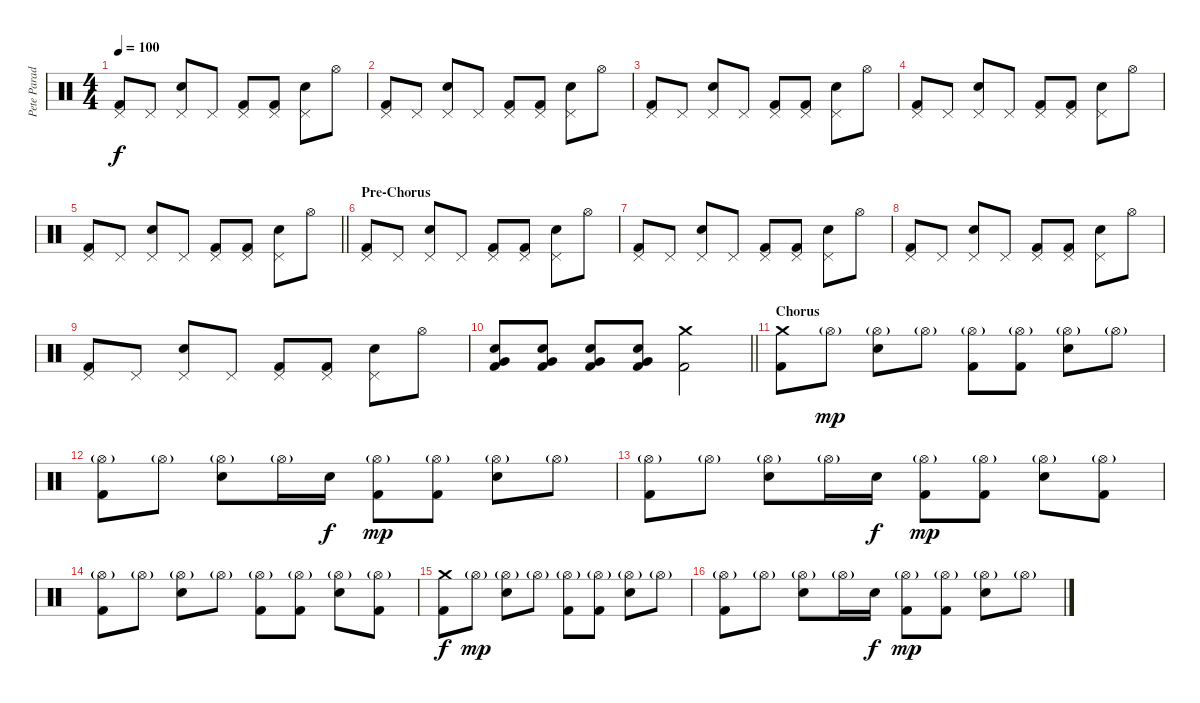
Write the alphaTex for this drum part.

\track ("Pete Parada - Drums" "Pete Parad") {instrument percussion}
\staff {score}
\articulation defaults
\ts (4 4)
\tempo 100
\clef neutral
\ks c
("Pedal Hi-Hat (hit)" "Kick (hit) 2").8{dy f} "Pedal Hi-Hat (hit)".8 ("Pedal Hi-Hat (hit)" "Electric Snare (hit)").8 "Pedal Hi-Hat (hit)".8 ("Pedal Hi-Hat (hit)" "Kick (hit) 2").8 ("Pedal Hi-Hat (hit)" "Kick (hit) 2").8 ("Pedal Hi-Hat (hit)" "Electric Snare (hit)").8 "Hi-Hat (open)".8 |
("Pedal Hi-Hat (hit)" "Kick (hit) 2").8 "Pedal Hi-Hat (hit)".8 ("Pedal Hi-Hat (hit)" "Electric Snare (hit)").8 "Pedal Hi-Hat (hit)".8 ("Pedal Hi-Hat (hit)" "Kick (hit) 2").8 ("Pedal Hi-Hat (hit)" "Kick (hit) 2").8 ("Pedal Hi-Hat (hit)" "Electric Snare (hit)").8 "Hi-Hat (open)".8 |
("Pedal Hi-Hat (hit)" "Kick (hit) 2").8 "Pedal Hi-Hat (hit)".8 ("Pedal Hi-Hat (hit)" "Electric Snare (hit)").8 "Pedal Hi-Hat (hit)".8 ("Pedal Hi-Hat (hit)" "Kick (hit) 2").8 ("Pedal Hi-Hat (hit)" "Kick (hit) 2").8 ("Pedal Hi-Hat (hit)" "Electric Snare (hit)").8 "Hi-Hat (open)".8 |
("Pedal Hi-Hat (hit)" "Kick (hit) 2").8 "Pedal Hi-Hat (hit)".8 ("Pedal Hi-Hat (hit)" "Electric Snare (hit)").8 "Pedal Hi-Hat (hit)".8 ("Pedal Hi-Hat (hit)" "Kick (hit) 2").8 ("Pedal Hi-Hat (hit)" "Kick (hit) 2").8 ("Pedal Hi-Hat (hit)" "Electric Snare (hit)").8 "Hi-Hat (open)".8 |
\barLineRight lightlight
("Pedal Hi-Hat (hit)" "Kick (hit) 2").8 "Pedal Hi-Hat (hit)".8 ("Pedal Hi-Hat (hit)" "Electric Snare (hit)").8 "Pedal Hi-Hat (hit)".8 ("Pedal Hi-Hat (hit)" "Kick (hit) 2").8 ("Pedal Hi-Hat (hit)" "Kick (hit) 2").8 ("Pedal Hi-Hat (hit)" "Electric Snare (hit)").8 "Hi-Hat (open)".8 |
\section ("" "Pre-Chorus")
("Pedal Hi-Hat (hit)" "Kick (hit) 2").8 "Pedal Hi-Hat (hit)".8 ("Pedal Hi-Hat (hit)" "Electric Snare (hit)").8 "Pedal Hi-Hat (hit)".8 ("Pedal Hi-Hat (hit)" "Kick (hit) 2").8 ("Pedal Hi-Hat (hit)" "Kick (hit) 2").8 ("Pedal Hi-Hat (hit)" "Electric Snare (hit)").8 "Hi-Hat (open)".8 |
("Pedal Hi-Hat (hit)" "Kick (hit) 2").8 "Pedal Hi-Hat (hit)".8 ("Pedal Hi-Hat (hit)" "Electric Snare (hit)").8 "Pedal Hi-Hat (hit)".8 ("Pedal Hi-Hat (hit)" "Kick (hit) 2").8 ("Pedal Hi-Hat (hit)" "Kick (hit) 2").8 ("Pedal Hi-Hat (hit)" "Electric Snare (hit)").8 "Hi-Hat (open)".8 |
("Pedal Hi-Hat (hit)" "Kick (hit) 2").8 "Pedal Hi-Hat (hit)".8 ("Pedal Hi-Hat (hit)" "Electric Snare (hit)").8 "Pedal Hi-Hat (hit)".8 ("Pedal Hi-Hat (hit)" "Kick (hit) 2").8 ("Pedal Hi-Hat (hit)" "Kick (hit) 2").8 ("Pedal Hi-Hat (hit)" "Electric Snare (hit)").8 "Hi-Hat (open)".8 |
("Pedal Hi-Hat (hit)" "Kick (hit) 2").8 "Pedal Hi-Hat (hit)".8 ("Pedal Hi-Hat (hit)" "Electric Snare (hit)").8 "Pedal Hi-Hat (hit)".8 ("Pedal Hi-Hat (hit)" "Kick (hit) 2").8 ("Pedal Hi-Hat (hit)" "Kick (hit) 2").8 ("Pedal Hi-Hat (hit)" "Electric Snare (hit)").8 "Hi-Hat (open)".8 |
\barLineRight lightlight
("Very Low Tom (hit)" "Electric Snare (hit)" "Kick (hit) 2").8 ("Very Low Tom (hit)" "Electric Snare (hit)" "Kick (hit) 2").8 ("Very Low Tom (hit)" "Electric Snare (hit)" "Kick (hit) 2").8 ("Very Low Tom (hit)" "Electric Snare (hit)" "Kick (hit) 2").8 ("Crash medium (hit)" "Kick (hit) 2").2 |
\section ("" "Chorus")
("Crash medium (hit)" "Kick (hit) 2").8 "Hi-Hat (open)"{g}.8{dy mp} ("Hi-Hat (open)"{g} "Electric Snare (hit)").8 "Hi-Hat (open)"{g}.8 ("Hi-Hat (open)"{g} "Kick (hit) 2").8 ("Hi-Hat (open)"{g} "Kick (hit) 2").8 ("Hi-Hat (open)"{g} "Electric Snare (hit)").8 "Hi-Hat (open)"{g}.8 |
("Hi-Hat (open)"{g} "Kick (hit) 2").8 "Hi-Hat (open)"{g}.8 ("Hi-Hat (open)"{g} "Electric Snare (hit)").8 "Hi-Hat (open)"{g}.16 "Electric Snare (hit)".16{dy f} ("Hi-Hat (open)"{g} "Kick (hit) 2").8{dy mp} ("Hi-Hat (open)"{g} "Kick (hit) 2").8 ("Hi-Hat (open)"{g} "Electric Snare (hit)").8 "Hi-Hat (open)"{g}.8 |
("Hi-Hat (open)"{g} "Kick (hit) 2").8 "Hi-Hat (open)"{g}.8 ("Hi-Hat (open)"{g} "Electric Snare (hit)").8 "Hi-Hat (open)"{g}.16 "Electric Snare (hit)".16{dy f} ("Hi-Hat (open)"{g} "Kick (hit) 2").8{dy mp} ("Hi-Hat (open)"{g} "Kick (hit) 2").8 ("Hi-Hat (open)"{g} "Electric Snare (hit)").8 ("Hi-Hat (open)"{g} "Kick (hit) 2").8 |
("Hi-Hat (open)"{g} "Kick (hit) 2").8 "Hi-Hat (open)"{g}.8 ("Hi-Hat (open)"{g} "Electric Snare (hit)").8 "Hi-Hat (open)"{g}.8 ("Hi-Hat (open)"{g} "Kick (hit) 2").8 ("Hi-Hat (open)"{g} "Kick (hit) 2").8 ("Hi-Hat (open)"{g} "Electric Snare (hit)").8 ("Hi-Hat (open)"{g} "Kick (hit) 2").8 |
("Crash medium (hit)" "Kick (hit) 2").8{dy f} "Hi-Hat (open)"{g}.8{dy mp} ("Hi-Hat (open)"{g} "Electric Snare (hit)").8 "Hi-Hat (open)"{g}.8 ("Hi-Hat (open)"{g} "Kick (hit) 2").8 ("Hi-Hat (open)"{g} "Kick (hit) 2").8 ("Hi-Hat (open)"{g} "Electric Snare (hit)").8 "Hi-Hat (open)"{g}.8 |
("Hi-Hat (open)"{g} "Kick (hit) 2").8 "Hi-Hat (open)"{g}.8 ("Hi-Hat (open)"{g} "Electric Snare (hit)").8 "Hi-Hat (open)"{g}.16 "Electric Snare (hit)".16{dy f} ("Hi-Hat (open)"{g} "Kick (hit) 2").8{dy mp} ("Hi-Hat (open)"{g} "Kick (hit) 2").8 ("Hi-Hat (open)"{g} "Electric Snare (hit)").8 "Hi-Hat (open)"{g}.8
